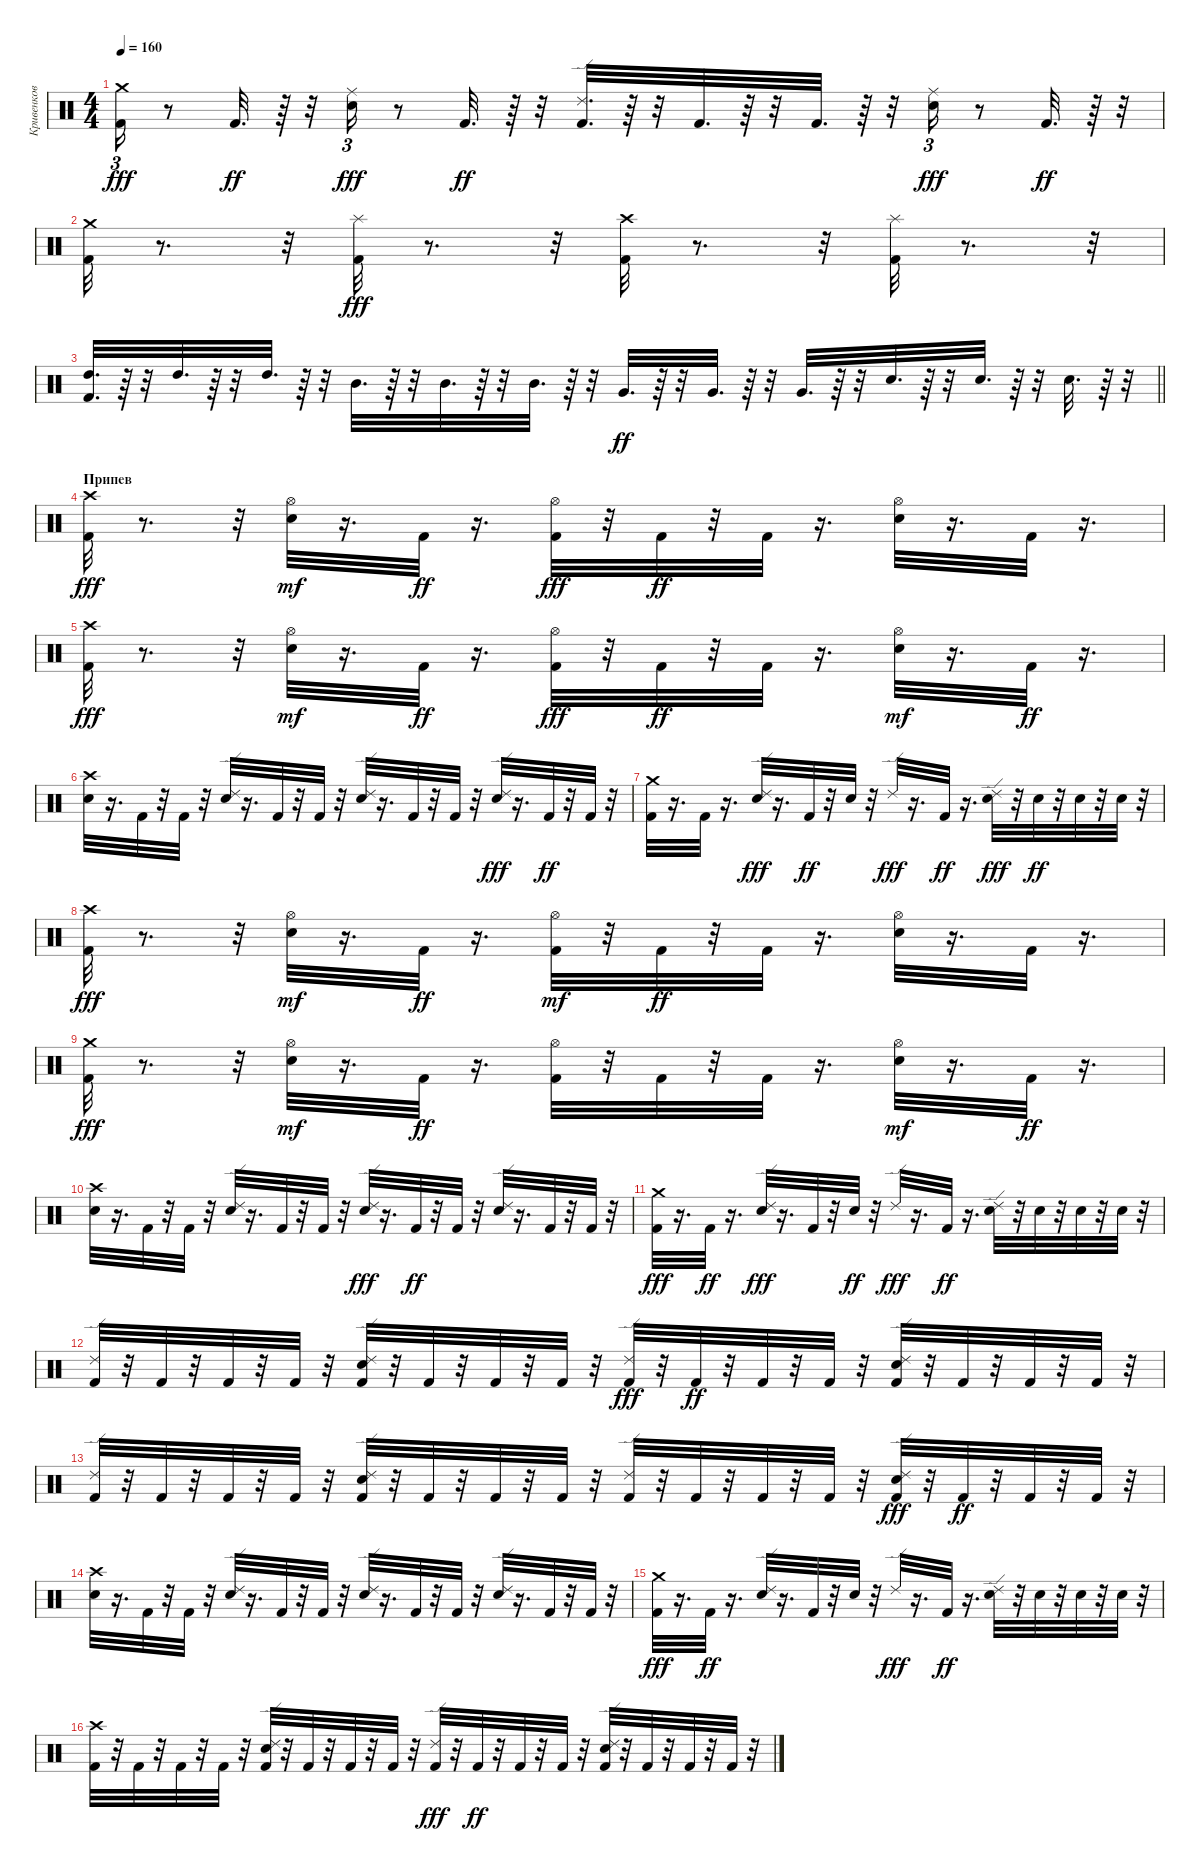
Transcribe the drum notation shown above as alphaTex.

\track ("Кривенков" "Кривенков") {instrument percussion}
\staff {score}
\articulation defaults
\ts (4 4)
\tempo 160
\clef neutral
\ks c
("Kick (hit) 2" "Crash medium (hit)").16{tu (3 2) dy fff} r.8 "Kick (hit) 2".32{d dy ff} r.64 r.32 ("Electric Snare (hit)" "Ride (middle)").16{tu (3 2) dy fff} r.8 "Kick (hit) 2".32{d dy ff} r.64 r.32 ("Ride (edge) 2" "Kick (hit) 2").32{d} r.64 r.32 "Kick (hit) 2".32{d} r.64 r.32 "Kick (hit) 2".32{d} r.64 r.32 ("Electric Snare (hit)" "Ride (middle)").16{tu (3 2) dy fff} r.8 "Kick (hit) 2".32{d dy ff} r.64 r.32 |
("Crash medium (hit)" "Kick (hit) 2").32 r.8{d} r.32 ("Splash (hit)" "Kick (hit) 2").32{dy fff} r.8{d} r.32 ("Crash high (hit)" "Kick (hit) 2").32 r.8{d} r.32 ("Kick (hit) 2" "Splash (hit)").32 r.8{d} r.32 |
\barLineRight lightlight
("High Tom (hit)" "Kick (hit) 2").32{d} r.64 r.32 "High Tom (hit)".32{d} r.64 r.32 "High Tom (hit)".32{d} r.64 r.32 "Mid Tom (hit)".32{d} r.64 r.32 "Mid Tom (hit)".32{d} r.64 r.32 "Mid Tom (hit)".32{d} r.64 r.32 "Very Low Tom (hit)".32{d dy ff} r.64 r.32 "Very Low Tom (hit)".32{d} r.64 r.32 "Very Low Tom (hit)".32{d} r.64 r.32 "Electric Snare (hit)".32{d} r.64 r.32 "Electric Snare (hit)".32{d} r.64 r.32 "Electric Snare (hit)".32{d} r.64 r.32 |
\section ("" "Припев")
("Crash high (hit)" "Kick (hit) 2").32{dy fff} r.8{d} r.32 ("Electric Snare (hit)" "Hi-Hat (open)").32{dy mf} r.16{d} "Kick (hit) 2".32{dy ff} r.16{d} ("Hi-Hat (open)" "Kick (hit) 2").32{dy fff} r.32 "Kick (hit) 2".32{dy ff} r.32 "Kick (hit) 2".32 r.16{d} ("Hi-Hat (open)" "Electric Snare (hit)").32 r.16{d} "Kick (hit) 2".32 r.16{d} |
("Crash high (hit)" "Kick (hit) 2").32{dy fff} r.8{d} r.32 ("Electric Snare (hit)" "Hi-Hat (open)").32{dy mf} r.16{d} "Kick (hit) 2".32{dy ff} r.16{d} ("Hi-Hat (open)" "Kick (hit) 2").32{dy fff} r.32 "Kick (hit) 2".32{dy ff} r.32 "Kick (hit) 2".32 r.16{d} ("Electric Snare (hit)" "Hi-Hat (open)").32{dy mf} r.16{d} "Kick (hit) 2".32{dy ff} r.16{d} |
("Electric Snare (hit)" "Crash high (hit)").32 r.16{d} "Kick (hit) 2".32 r.32 "Kick (hit) 2".32 r.32 ("Ride (edge) 2" "Electric Snare (hit)").32 r.16{d} "Kick (hit) 2".32 r.32 "Kick (hit) 2".32 r.32 ("Ride (edge) 2" "Electric Snare (hit)").32 r.16{d} "Kick (hit) 2".32 r.32 "Kick (hit) 2".32 r.32 ("Electric Snare (hit)" "Ride (edge) 2").32{dy fff} r.16{d} "Kick (hit) 2".32{dy ff} r.32 "Kick (hit) 2".32 r.32 |
("Kick (hit) 2" "Crash medium (hit)").32 r.16{d} "Kick (hit) 2".32 r.16{d} ("Electric Snare (hit)" "Ride (edge) 2").32{dy fff} r.16{d} "Kick (hit) 2".32{dy ff} r.32 "Electric Snare (hit)".32 r.32 "Ride (edge) 2".32{dy fff} r.16{d} "Kick (hit) 2".32{dy ff} r.16{d} ("Electric Snare (hit)" "Ride (edge) 2").32{dy fff} r.32 "Electric Snare (hit)".32{dy ff} r.32 "Electric Snare (hit)".32 r.32 "Electric Snare (hit)".32 r.32 |
("Kick (hit) 2" "Crash high (hit)").32{dy fff} r.8{d} r.32 ("Electric Snare (hit)" "Hi-Hat (open)").32{dy mf} r.16{d} "Kick (hit) 2".32{dy ff} r.16{d} ("Kick (hit) 2" "Hi-Hat (open)").32{dy mf} r.32 "Kick (hit) 2".32{dy ff} r.32 "Kick (hit) 2".32 r.16{d} ("Hi-Hat (open)" "Electric Snare (hit)").32 r.16{d} "Kick (hit) 2".32 r.16{d} |
("Crash medium (hit)" "Kick (hit) 2").32{dy fff} r.8{d} r.32 ("Electric Snare (hit)" "Hi-Hat (open)").32{dy mf} r.16{d} "Kick (hit) 2".32{dy ff} r.16{d} ("Hi-Hat (open)" "Kick (hit) 2").32 r.32 "Kick (hit) 2".32 r.32 "Kick (hit) 2".32 r.16{d} ("Electric Snare (hit)" "Hi-Hat (open)").32{dy mf} r.16{d} "Kick (hit) 2".32{dy ff} r.16{d} |
("Electric Snare (hit)" "Crash high (hit)").32 r.16{d} "Kick (hit) 2".32 r.32 "Kick (hit) 2".32 r.32 ("Ride (edge) 2" "Electric Snare (hit)").32 r.16{d} "Kick (hit) 2".32 r.32 "Kick (hit) 2".32 r.32 ("Electric Snare (hit)" "Ride (edge) 2").32{dy fff} r.16{d} "Kick (hit) 2".32{dy ff} r.32 "Kick (hit) 2".32 r.32 ("Ride (edge) 2" "Electric Snare (hit)").32 r.16{d} "Kick (hit) 2".32 r.32 "Kick (hit) 2".32 r.32 |
("Crash medium (hit)" "Kick (hit) 2").32{dy fff} r.16{d} "Kick (hit) 2".32{dy ff} r.16{d} ("Electric Snare (hit)" "Ride (edge) 2").32{dy fff} r.16{d} "Kick (hit) 2".32 r.32 "Electric Snare (hit)".32{dy ff} r.32 "Ride (edge) 2".32{dy fff} r.16{d} "Kick (hit) 2".32{dy ff} r.16{d} ("Ride (edge) 2" "Electric Snare (hit)").32 r.32 "Electric Snare (hit)".32 r.32 "Electric Snare (hit)".32 r.32 "Electric Snare (hit)".32 r.32 |
("Ride (edge) 2" "Kick (hit) 2").32 r.32 "Kick (hit) 2".32 r.32 "Kick (hit) 2".32 r.32 "Kick (hit) 2".32 r.32 ("Electric Snare (hit)" "Ride (edge) 2" "Kick (hit) 2").32 r.32 "Kick (hit) 2".32 r.32 "Kick (hit) 2".32 r.32 "Kick (hit) 2".32 r.32 ("Kick (hit) 2" "Ride (edge) 2").32{dy fff} r.32 "Kick (hit) 2".32{dy ff} r.32 "Kick (hit) 2".32 r.32 "Kick (hit) 2".32 r.32 ("Ride (edge) 2" "Kick (hit) 2" "Electric Snare (hit)").32 r.32 "Kick (hit) 2".32 r.32 "Kick (hit) 2".32 r.32 "Kick (hit) 2".32 r.32 |
("Ride (edge) 2" "Kick (hit) 2").32 r.32 "Kick (hit) 2".32 r.32 "Kick (hit) 2".32 r.32 "Kick (hit) 2".32 r.32 ("Ride (edge) 2" "Electric Snare (hit)" "Kick (hit) 2").32 r.32 "Kick (hit) 2".32 r.32 "Kick (hit) 2".32 r.32 "Kick (hit) 2".32 r.32 ("Ride (edge) 2" "Kick (hit) 2").32 r.32 "Kick (hit) 2".32 r.32 "Kick (hit) 2".32 r.32 "Kick (hit) 2".32 r.32 ("Kick (hit) 2" "Electric Snare (hit)" "Ride (edge) 2").32{dy fff} r.32 "Kick (hit) 2".32{dy ff} r.32 "Kick (hit) 2".32 r.32 "Kick (hit) 2".32 r.32 |
("Electric Snare (hit)" "Crash high (hit)").32 r.16{d} "Kick (hit) 2".32 r.32 "Kick (hit) 2".32 r.32 ("Ride (edge) 2" "Electric Snare (hit)").32 r.16{d} "Kick (hit) 2".32 r.32 "Kick (hit) 2".32 r.32 ("Ride (edge) 2" "Electric Snare (hit)").32 r.16{d} "Kick (hit) 2".32 r.32 "Kick (hit) 2".32 r.32 ("Ride (edge) 2" "Electric Snare (hit)").32 r.16{d} "Kick (hit) 2".32 r.32 "Kick (hit) 2".32 r.32 |
("Crash medium (hit)" "Kick (hit) 2").32{dy fff} r.16{d} "Kick (hit) 2".32{dy ff} r.16{d} ("Ride (edge) 2" "Electric Snare (hit)").32 r.16{d} "Kick (hit) 2".32 r.32 "Electric Snare (hit)".32 r.32 "Ride (edge) 2".32{dy fff} r.16{d} "Kick (hit) 2".32{dy ff} r.16{d} ("Ride (edge) 2" "Electric Snare (hit)").32 r.32 "Electric Snare (hit)".32 r.32 "Electric Snare (hit)".32 r.32 "Electric Snare (hit)".32 r.32 |
("Crash high (hit)" "Kick (hit) 2").32 r.32 "Kick (hit) 2".32 r.32 "Kick (hit) 2".32 r.32 "Kick (hit) 2".32 r.32 ("Kick (hit) 2" "Ride (edge) 2" "Electric Snare (hit)").32 r.32 "Kick (hit) 2".32 r.32 "Kick (hit) 2".32 r.32 "Kick (hit) 2".32 r.32 ("Kick (hit) 2" "Ride (edge) 2").32{dy fff} r.32 "Kick (hit) 2".32{dy ff} r.32 "Kick (hit) 2".32 r.32 "Kick (hit) 2".32 r.32 ("Electric Snare (hit)" "Ride (edge) 2" "Kick (hit) 2").32 r.32 "Kick (hit) 2".32 r.32 "Kick (hit) 2".32 r.32 "Kick (hit) 2".32 r.32
